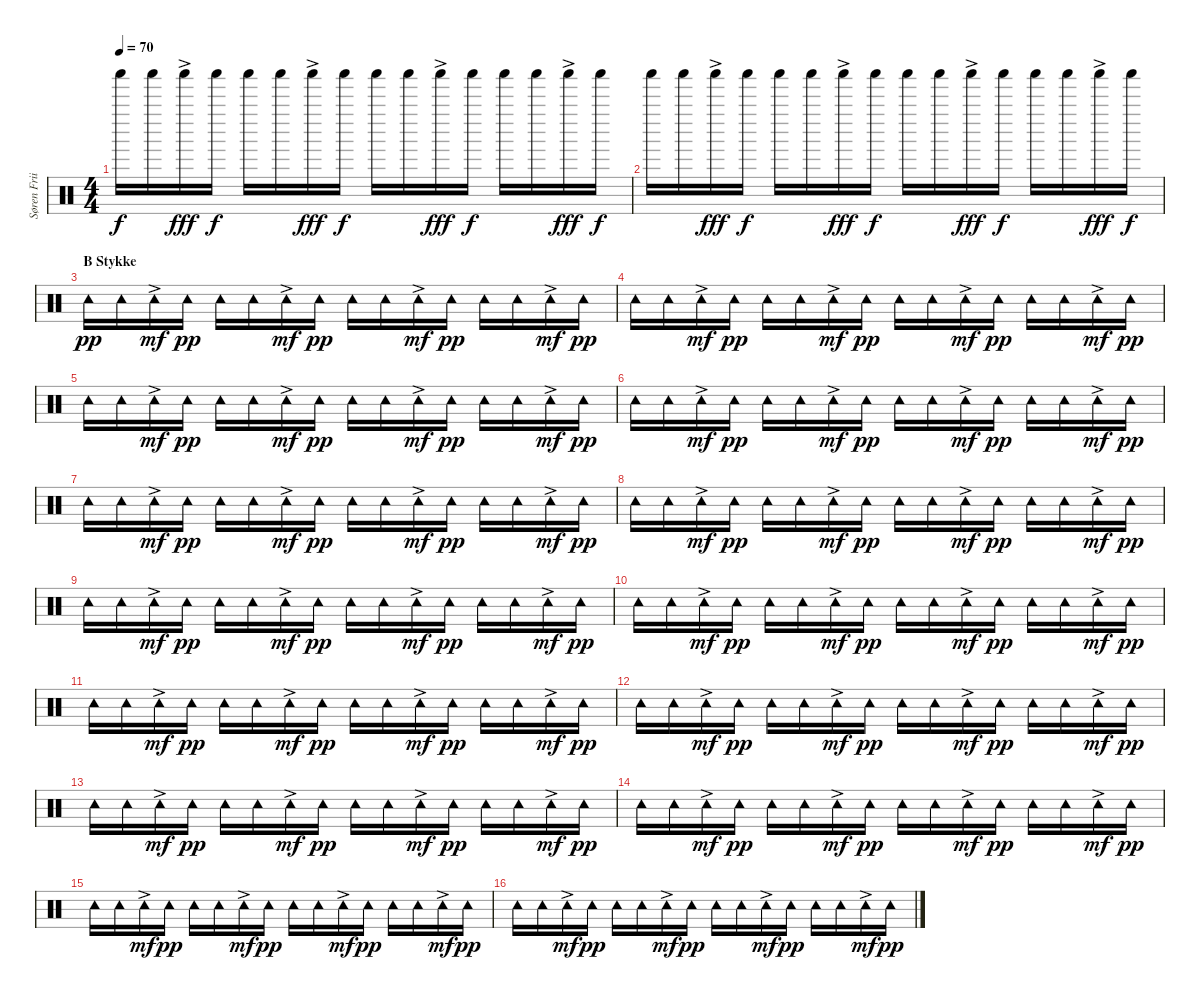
\track ("Søren Friis (Percussion)" "Søren Frii") {instrument percussion}
\staff {score}
\articulation defaults
\ts (4 4)
\tempo 70
\clef neutral
\ks c "Shaker (hit)".16{dy f} "Shaker (hit)".16 "Shaker (hit)"{ac}.16{dy fff} "Shaker (hit)".16{dy f} "Shaker (hit)".16 "Shaker (hit)".16 "Shaker (hit)"{ac}.16{dy fff} "Shaker (hit)".16{dy f} "Shaker (hit)".16 "Shaker (hit)".16 "Shaker (hit)"{ac}.16{dy fff} "Shaker (hit)".16{dy f} "Shaker (hit)".16 "Shaker (hit)".16 "Shaker (hit)"{ac}.16{dy fff} "Shaker (hit)".16{dy f}
|
"Shaker (hit)".16 "Shaker (hit)".16 "Shaker (hit)"{ac}.16{dy fff} "Shaker (hit)".16{dy f} "Shaker (hit)".16 "Shaker (hit)".16 "Shaker (hit)"{ac}.16{dy fff} "Shaker (hit)".16{dy f} "Shaker (hit)".16 "Shaker (hit)".16 "Shaker (hit)"{ac}.16{dy fff} "Shaker (hit)".16{dy f} "Shaker (hit)".16 "Shaker (hit)".16 "Shaker (hit)"{ac}.16{dy fff} "Shaker (hit)".16{dy f} |
\section ("" "B Stykke")
"Tambourine (hit)".16{dy pp} "Tambourine (hit)".16 "Tambourine (hit)"{ac}.16{dy mf} "Tambourine (hit)".16{dy pp} "Tambourine (hit)".16 "Tambourine (hit)".16 "Tambourine (hit)"{ac}.16{dy mf} "Tambourine (hit)".16{dy pp} "Tambourine (hit)".16 "Tambourine (hit)".16 "Tambourine (hit)"{ac}.16{dy mf} "Tambourine (hit)".16{dy pp} "Tambourine (hit)".16 "Tambourine (hit)".16 "Tambourine (hit)"{ac}.16{dy mf} "Tambourine (hit)".16{dy pp} |
"Tambourine (hit)".16 "Tambourine (hit)".16 "Tambourine (hit)"{ac}.16{dy mf} "Tambourine (hit)".16{dy pp} "Tambourine (hit)".16 "Tambourine (hit)".16 "Tambourine (hit)"{ac}.16{dy mf} "Tambourine (hit)".16{dy pp} "Tambourine (hit)".16 "Tambourine (hit)".16 "Tambourine (hit)"{ac}.16{dy mf} "Tambourine (hit)".16{dy pp} "Tambourine (hit)".16 "Tambourine (hit)".16 "Tambourine (hit)"{ac}.16{dy mf} "Tambourine (hit)".16{dy pp} |
"Tambourine (hit)".16 "Tambourine (hit)".16 "Tambourine (hit)"{ac}.16{dy mf} "Tambourine (hit)".16{dy pp} "Tambourine (hit)".16 "Tambourine (hit)".16 "Tambourine (hit)"{ac}.16{dy mf} "Tambourine (hit)".16{dy pp} "Tambourine (hit)".16 "Tambourine (hit)".16 "Tambourine (hit)"{ac}.16{dy mf} "Tambourine (hit)".16{dy pp} "Tambourine (hit)".16 "Tambourine (hit)".16 "Tambourine (hit)"{ac}.16{dy mf} "Tambourine (hit)".16{dy pp} |
"Tambourine (hit)".16 "Tambourine (hit)".16 "Tambourine (hit)"{ac}.16{dy mf} "Tambourine (hit)".16{dy pp} "Tambourine (hit)".16 "Tambourine (hit)".16 "Tambourine (hit)"{ac}.16{dy mf} "Tambourine (hit)".16{dy pp} "Tambourine (hit)".16 "Tambourine (hit)".16 "Tambourine (hit)"{ac}.16{dy mf} "Tambourine (hit)".16{dy pp} "Tambourine (hit)".16 "Tambourine (hit)".16 "Tambourine (hit)"{ac}.16{dy mf} "Tambourine (hit)".16{dy pp} |
"Tambourine (hit)".16 "Tambourine (hit)".16 "Tambourine (hit)"{ac}.16{dy mf} "Tambourine (hit)".16{dy pp} "Tambourine (hit)".16 "Tambourine (hit)".16 "Tambourine (hit)"{ac}.16{dy mf} "Tambourine (hit)".16{dy pp} "Tambourine (hit)".16 "Tambourine (hit)".16 "Tambourine (hit)"{ac}.16{dy mf} "Tambourine (hit)".16{dy pp} "Tambourine (hit)".16 "Tambourine (hit)".16 "Tambourine (hit)"{ac}.16{dy mf} "Tambourine (hit)".16{dy pp} |
"Tambourine (hit)".16 "Tambourine (hit)".16 "Tambourine (hit)"{ac}.16{dy mf} "Tambourine (hit)".16{dy pp} "Tambourine (hit)".16 "Tambourine (hit)".16 "Tambourine (hit)"{ac}.16{dy mf} "Tambourine (hit)".16{dy pp} "Tambourine (hit)".16 "Tambourine (hit)".16 "Tambourine (hit)"{ac}.16{dy mf} "Tambourine (hit)".16{dy pp} "Tambourine (hit)".16 "Tambourine (hit)".16 "Tambourine (hit)"{ac}.16{dy mf} "Tambourine (hit)".16{dy pp} |
"Tambourine (hit)".16 "Tambourine (hit)".16 "Tambourine (hit)"{ac}.16{dy mf} "Tambourine (hit)".16{dy pp} "Tambourine (hit)".16 "Tambourine (hit)".16 "Tambourine (hit)"{ac}.16{dy mf} "Tambourine (hit)".16{dy pp} "Tambourine (hit)".16 "Tambourine (hit)".16 "Tambourine (hit)"{ac}.16{dy mf} "Tambourine (hit)".16{dy pp} "Tambourine (hit)".16 "Tambourine (hit)".16 "Tambourine (hit)"{ac}.16{dy mf} "Tambourine (hit)".16{dy pp} |
"Tambourine (hit)".16 "Tambourine (hit)".16 "Tambourine (hit)"{ac}.16{dy mf} "Tambourine (hit)".16{dy pp} "Tambourine (hit)".16 "Tambourine (hit)".16 "Tambourine (hit)"{ac}.16{dy mf} "Tambourine (hit)".16{dy pp} "Tambourine (hit)".16 "Tambourine (hit)".16 "Tambourine (hit)"{ac}.16{dy mf} "Tambourine (hit)".16{dy pp} "Tambourine (hit)".16 "Tambourine (hit)".16 "Tambourine (hit)"{ac}.16{dy mf} "Tambourine (hit)".16{dy pp} |
"Tambourine (hit)".16 "Tambourine (hit)".16 "Tambourine (hit)"{ac}.16{dy mf} "Tambourine (hit)".16{dy pp} "Tambourine (hit)".16 "Tambourine (hit)".16 "Tambourine (hit)"{ac}.16{dy mf} "Tambourine (hit)".16{dy pp} "Tambourine (hit)".16 "Tambourine (hit)".16 "Tambourine (hit)"{ac}.16{dy mf} "Tambourine (hit)".16{dy pp} "Tambourine (hit)".16 "Tambourine (hit)".16 "Tambourine (hit)"{ac}.16{dy mf} "Tambourine (hit)".16{dy pp} |
"Tambourine (hit)".16 "Tambourine (hit)".16 "Tambourine (hit)"{ac}.16{dy mf} "Tambourine (hit)".16{dy pp} "Tambourine (hit)".16 "Tambourine (hit)".16 "Tambourine (hit)"{ac}.16{dy mf} "Tambourine (hit)".16{dy pp} "Tambourine (hit)".16 "Tambourine (hit)".16 "Tambourine (hit)"{ac}.16{dy mf} "Tambourine (hit)".16{dy pp} "Tambourine (hit)".16 "Tambourine (hit)".16 "Tambourine (hit)"{ac}.16{dy mf} "Tambourine (hit)".16{dy pp} |
"Tambourine (hit)".16 "Tambourine (hit)".16 "Tambourine (hit)"{ac}.16{dy mf} "Tambourine (hit)".16{dy pp} "Tambourine (hit)".16 "Tambourine (hit)".16 "Tambourine (hit)"{ac}.16{dy mf} "Tambourine (hit)".16{dy pp} "Tambourine (hit)".16 "Tambourine (hit)".16 "Tambourine (hit)"{ac}.16{dy mf} "Tambourine (hit)".16{dy pp} "Tambourine (hit)".16 "Tambourine (hit)".16 "Tambourine (hit)"{ac}.16{dy mf} "Tambourine (hit)".16{dy pp} |
"Tambourine (hit)".16 "Tambourine (hit)".16 "Tambourine (hit)"{ac}.16{dy mf} "Tambourine (hit)".16{dy pp} "Tambourine (hit)".16 "Tambourine (hit)".16 "Tambourine (hit)"{ac}.16{dy mf} "Tambourine (hit)".16{dy pp} "Tambourine (hit)".16 "Tambourine (hit)".16 "Tambourine (hit)"{ac}.16{dy mf} "Tambourine (hit)".16{dy pp} "Tambourine (hit)".16 "Tambourine (hit)".16 "Tambourine (hit)"{ac}.16{dy mf} "Tambourine (hit)".16{dy pp} |
"Tambourine (hit)".16 "Tambourine (hit)".16 "Tambourine (hit)"{ac}.16{dy mf} "Tambourine (hit)".16{dy pp} "Tambourine (hit)".16 "Tambourine (hit)".16 "Tambourine (hit)"{ac}.16{dy mf} "Tambourine (hit)".16{dy pp} "Tambourine (hit)".16 "Tambourine (hit)".16 "Tambourine (hit)"{ac}.16{dy mf} "Tambourine (hit)".16{dy pp} "Tambourine (hit)".16 "Tambourine (hit)".16 "Tambourine (hit)"{ac}.16{dy mf} "Tambourine (hit)".16{dy pp} |
"Tambourine (hit)".16 "Tambourine (hit)".16 "Tambourine (hit)"{ac}.16{dy mf} "Tambourine (hit)".16{dy pp} "Tambourine (hit)".16 "Tambourine (hit)".16 "Tambourine (hit)"{ac}.16{dy mf} "Tambourine (hit)".16{dy pp} "Tambourine (hit)".16 "Tambourine (hit)".16 "Tambourine (hit)"{ac}.16{dy mf} "Tambourine (hit)".16{dy pp} "Tambourine (hit)".16 "Tambourine (hit)".16 "Tambourine (hit)"{ac}.16{dy mf} "Tambourine (hit)".16{dy pp}
